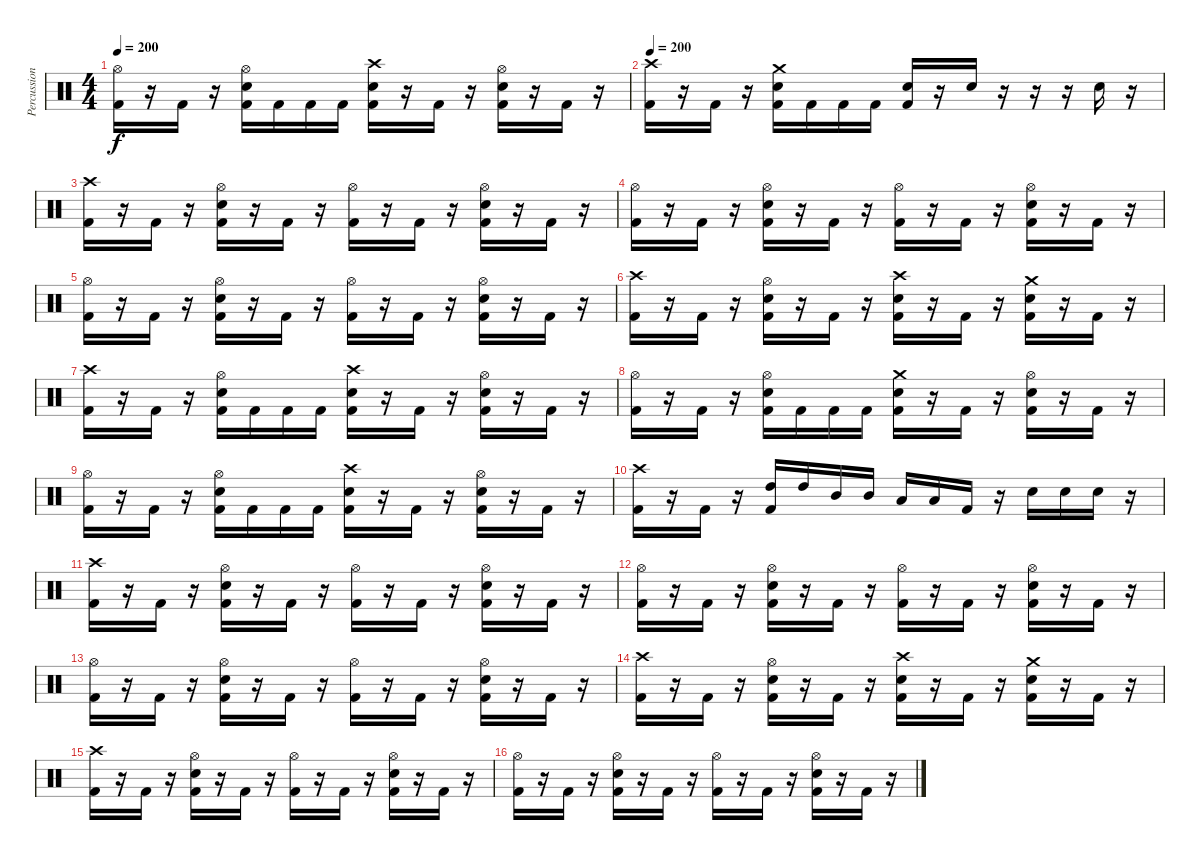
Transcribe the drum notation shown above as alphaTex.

\track ("Percussion" "Percussion") {instrument percussion}
\staff {score}
\articulation defaults
\ts (4 4)
\tempo 200
\clef neutral
\ks c
("Hi-Hat (open)" "Kick (hit) 2").16{dy f} r.16 "Kick (hit) 2".16 r.16 ("Hi-Hat (open)" "Snare (hit) 2" "Kick (hit) 2").16 "Kick (hit) 2".16 "Kick (hit) 2".16 "Kick (hit) 2".16 ("Crash high (hit)" "Snare (hit) 2" "Kick (hit) 2").16 r.16 "Kick (hit) 2".16 r.16 ("Hi-Hat (open)" "Snare (hit) 2" "Kick (hit) 2").16 r.16 "Kick (hit) 2".16 r.16 |
\tempo 200
("Crash high (hit)" "Kick (hit) 2").16 r.16 "Kick (hit) 2".16 r.16 ("Crash medium (hit)" "Snare (hit) 2" "Kick (hit) 2").16 "Kick (hit) 2".16 "Kick (hit) 2".16 "Kick (hit) 2".16 ("Snare (hit) 2" "Kick (hit) 2").16 r.16 "Snare (hit) 2".16 r.16 r.16 r.16 "Snare (hit) 2".16 r.16 |
("Crash high (hit)" "Kick (hit) 2").16 r.16 "Kick (hit) 2".16 r.16 ("Hi-Hat (open)" "Snare (hit) 2" "Kick (hit) 2").16 r.16 "Kick (hit) 2".16 r.16 ("Hi-Hat (open)" "Kick (hit) 2").16 r.16 "Kick (hit) 2".16 r.16 ("Hi-Hat (open)" "Snare (hit) 2" "Kick (hit) 2").16 r.16 "Kick (hit) 2".16 r.16 |
("Hi-Hat (open)" "Kick (hit) 2").16 r.16 "Kick (hit) 2".16 r.16 ("Hi-Hat (open)" "Snare (hit) 2" "Kick (hit) 2").16 r.16 "Kick (hit) 2".16 r.16 ("Hi-Hat (open)" "Kick (hit) 2").16 r.16 "Kick (hit) 2".16 r.16 ("Hi-Hat (open)" "Snare (hit) 2" "Kick (hit) 2").16 r.16 "Kick (hit) 2".16 r.16 |
("Hi-Hat (open)" "Kick (hit) 2").16 r.16 "Kick (hit) 2".16 r.16 ("Hi-Hat (open)" "Snare (hit) 2" "Kick (hit) 2").16 r.16 "Kick (hit) 2".16 r.16 ("Hi-Hat (open)" "Kick (hit) 2").16 r.16 "Kick (hit) 2".16 r.16 ("Hi-Hat (open)" "Snare (hit) 2" "Kick (hit) 2").16 r.16 "Kick (hit) 2".16 r.16 |
("Crash high (hit)" "Kick (hit) 2").16 r.16 "Kick (hit) 2".16 r.16 ("Hi-Hat (open)" "Snare (hit) 2" "Kick (hit) 2").16 r.16 "Kick (hit) 2".16 r.16 ("Crash high (hit)" "Snare (hit) 2" "Kick (hit) 2").16 r.16 "Kick (hit) 2".16 r.16 ("Crash medium (hit)" "Snare (hit) 2" "Kick (hit) 2").16 r.16 "Kick (hit) 2".16 r.16 |
("Crash high (hit)" "Kick (hit) 2").16 r.16 "Kick (hit) 2".16 r.16 ("Hi-Hat (open)" "Snare (hit) 2" "Kick (hit) 2").16 "Kick (hit) 2".16 "Kick (hit) 2".16 "Kick (hit) 2".16 ("Crash high (hit)" "Snare (hit) 2" "Kick (hit) 2").16 r.16 "Kick (hit) 2".16 r.16 ("Hi-Hat (open)" "Snare (hit) 2" "Kick (hit) 2").16 r.16 "Kick (hit) 2".16 r.16 |
("Hi-Hat (open)" "Kick (hit) 2").16 r.16 "Kick (hit) 2".16 r.16 ("Hi-Hat (open)" "Snare (hit) 2" "Kick (hit) 2").16 "Kick (hit) 2".16 "Kick (hit) 2".16 "Kick (hit) 2".16 ("Crash medium (hit)" "Snare (hit) 2" "Kick (hit) 2").16 r.16 "Kick (hit) 2".16 r.16 ("Hi-Hat (open)" "Snare (hit) 2" "Kick (hit) 2").16 r.16 "Kick (hit) 2".16 r.16 |
("Hi-Hat (open)" "Kick (hit) 2").16 r.16 "Kick (hit) 2".16 r.16 ("Hi-Hat (open)" "Snare (hit) 2" "Kick (hit) 2").16 "Kick (hit) 2".16 "Kick (hit) 2".16 "Kick (hit) 2".16 ("Crash high (hit)" "Snare (hit) 2" "Kick (hit) 2").16 r.16 "Kick (hit) 2".16 r.16 ("Hi-Hat (open)" "Snare (hit) 2" "Kick (hit) 2").16 r.16 "Kick (hit) 2".16 r.16 |
("Crash high (hit)" "Kick (hit) 2").16 r.16 "Kick (hit) 2".16 r.16 ("High Tom (hit)" "Kick (hit) 2").16 "High Tom (hit)".16 "Mid Tom (hit)".16 "Mid Tom (hit)".16 "Low Tom (hit)".16 "Low Tom (hit)".16 "Kick (hit) 2".16 r.16 "Snare (hit) 2".16 "Snare (hit) 2".16 "Snare (hit) 2".16 r.16 |
("Crash high (hit)" "Kick (hit) 2").16 r.16 "Kick (hit) 2".16 r.16 ("Hi-Hat (open)" "Snare (hit) 2" "Kick (hit) 2").16 r.16 "Kick (hit) 2".16 r.16 ("Hi-Hat (open)" "Kick (hit) 2").16 r.16 "Kick (hit) 2".16 r.16 ("Hi-Hat (open)" "Snare (hit) 2" "Kick (hit) 2").16 r.16 "Kick (hit) 2".16 r.16 |
("Hi-Hat (open)" "Kick (hit) 2").16 r.16 "Kick (hit) 2".16 r.16 ("Hi-Hat (open)" "Snare (hit) 2" "Kick (hit) 2").16 r.16 "Kick (hit) 2".16 r.16 ("Hi-Hat (open)" "Kick (hit) 2").16 r.16 "Kick (hit) 2".16 r.16 ("Hi-Hat (open)" "Snare (hit) 2" "Kick (hit) 2").16 r.16 "Kick (hit) 2".16 r.16 |
("Hi-Hat (open)" "Kick (hit) 2").16 r.16 "Kick (hit) 2".16 r.16 ("Hi-Hat (open)" "Snare (hit) 2" "Kick (hit) 2").16 r.16 "Kick (hit) 2".16 r.16 ("Hi-Hat (open)" "Kick (hit) 2").16 r.16 "Kick (hit) 2".16 r.16 ("Hi-Hat (open)" "Snare (hit) 2" "Kick (hit) 2").16 r.16 "Kick (hit) 2".16 r.16 |
("Crash high (hit)" "Kick (hit) 2").16 r.16 "Kick (hit) 2".16 r.16 ("Hi-Hat (open)" "Snare (hit) 2" "Kick (hit) 2").16 r.16 "Kick (hit) 2".16 r.16 ("Crash high (hit)" "Snare (hit) 2" "Kick (hit) 2").16 r.16 "Kick (hit) 2".16 r.16 ("Crash medium (hit)" "Snare (hit) 2" "Kick (hit) 2").16 r.16 "Kick (hit) 2".16 r.16 |
("Crash high (hit)" "Kick (hit) 2").16 r.16 "Kick (hit) 2".16 r.16 ("Hi-Hat (open)" "Snare (hit) 2" "Kick (hit) 2").16 r.16 "Kick (hit) 2".16 r.16 ("Hi-Hat (open)" "Kick (hit) 2").16 r.16 "Kick (hit) 2".16 r.16 ("Hi-Hat (open)" "Snare (hit) 2" "Kick (hit) 2").16 r.16 "Kick (hit) 2".16 r.16 |
("Hi-Hat (open)" "Kick (hit) 2").16 r.16 "Kick (hit) 2".16 r.16 ("Hi-Hat (open)" "Snare (hit) 2" "Kick (hit) 2").16 r.16 "Kick (hit) 2".16 r.16 ("Hi-Hat (open)" "Kick (hit) 2").16 r.16 "Kick (hit) 2".16 r.16 ("Hi-Hat (open)" "Snare (hit) 2" "Kick (hit) 2").16 r.16 "Kick (hit) 2".16 r.16
